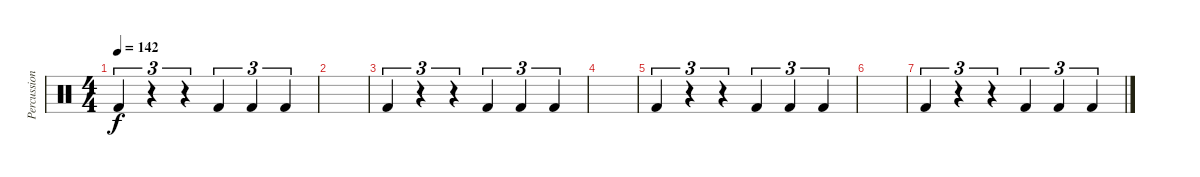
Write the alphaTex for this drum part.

\track ("Percussion" "Percussion") {instrument percussion}
\staff {score}
\articulation defaults
\ts (4 4)
\tempo 142
\clef neutral
\ks c "Kick (hit) 2".4{tu (3 2) dy f}
r.4{tu (3 2)} r.4{tu (3 2)} "Kick (hit) 2".4{tu (3 2)} "Kick (hit) 2".4{tu (3 2)} "Kick (hit) 2".4{tu (3 2)} |
|
"Kick (hit) 2".4{tu (3 2)} r.4{tu (3 2)} r.4{tu (3 2)} "Kick (hit) 2".4{tu (3 2)} "Kick (hit) 2".4{tu (3 2)} "Kick (hit) 2".4{tu (3 2)} |
|
"Kick (hit) 2".4{tu (3 2)} r.4{tu (3 2)} r.4{tu (3 2)} "Kick (hit) 2".4{tu (3 2)} "Kick (hit) 2".4{tu (3 2)} "Kick (hit) 2".4{tu (3 2)} |
|
"Kick (hit) 2".4{tu (3 2)} r.4{tu (3 2)} r.4{tu (3 2)} "Kick (hit) 2".4{tu (3 2)} "Kick (hit) 2".4{tu (3 2)} "Kick (hit) 2".4{tu (3 2)}
